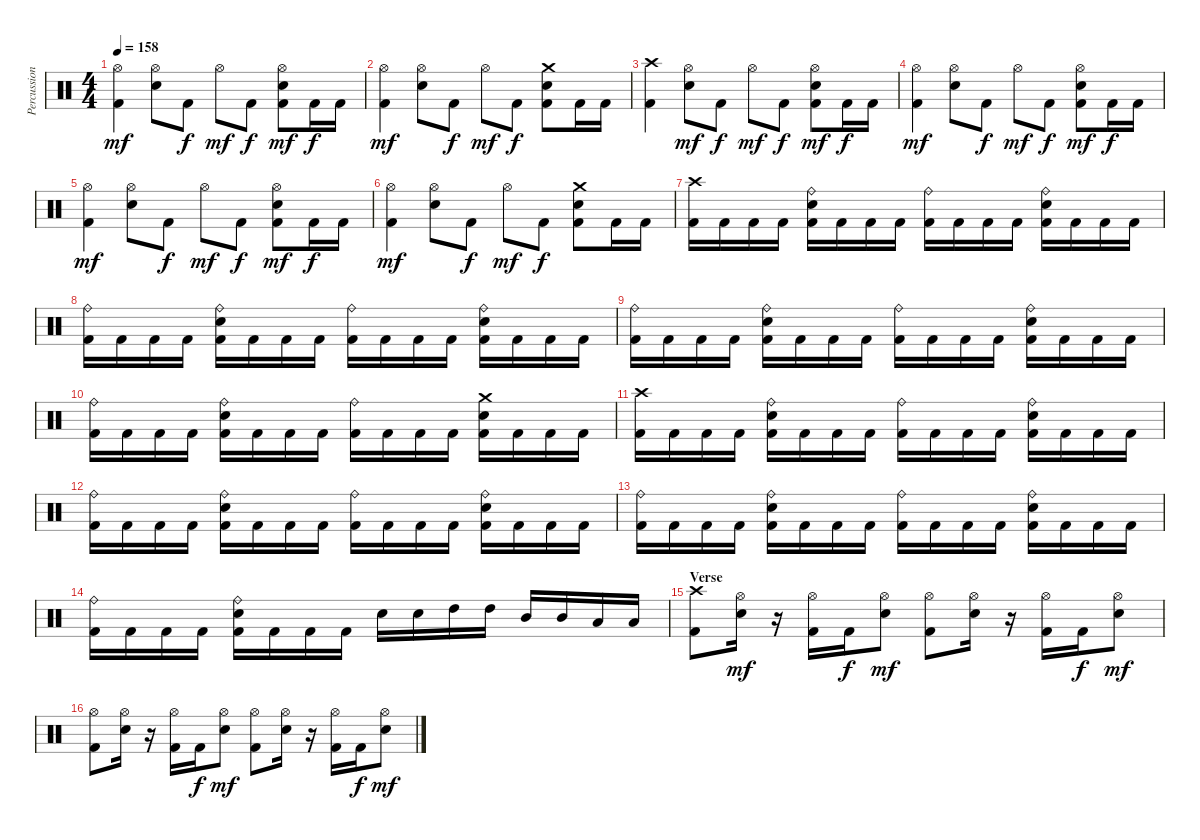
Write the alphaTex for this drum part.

\track ("Percussion" "Percussion") {instrument percussion}
\staff {score}
\articulation defaults
\ts (4 4)
\tempo 158
\clef neutral
\ks c
("Hi-Hat (open)" "Kick (hit) 2").4{dy mf} ("Hi-Hat (open)" "Electric Snare (hit)").8 "Kick (hit) 2".8{dy f} "Hi-Hat (open)".8{dy mf} "Kick (hit) 2".8{dy f} ("Hi-Hat (open)" "Electric Snare (hit)" "Kick (hit) 2").8{dy mf} "Kick (hit) 2".16{dy f} "Kick (hit) 2".16 |
("Hi-Hat (open)" "Kick (hit) 2").4{dy mf} ("Hi-Hat (open)" "Electric Snare (hit)").8 "Kick (hit) 2".8{dy f} "Hi-Hat (open)".8{dy mf} "Kick (hit) 2".8{dy f} ("Crash medium (hit)" "Electric Snare (hit)" "Kick (hit) 2").8 "Kick (hit) 2".16 "Kick (hit) 2".16 |
("Crash high (hit)" "Kick (hit) 2").4 ("Hi-Hat (open)" "Electric Snare (hit)").8{dy mf} "Kick (hit) 2".8{dy f} "Hi-Hat (open)".8{dy mf} "Kick (hit) 2".8{dy f} ("Hi-Hat (open)" "Electric Snare (hit)" "Kick (hit) 2").8{dy mf} "Kick (hit) 2".16{dy f} "Kick (hit) 2".16 |
("Hi-Hat (open)" "Kick (hit) 2").4{dy mf} ("Hi-Hat (open)" "Electric Snare (hit)").8 "Kick (hit) 2".8{dy f} "Hi-Hat (open)".8{dy mf} "Kick (hit) 2".8{dy f} ("Hi-Hat (open)" "Electric Snare (hit)" "Kick (hit) 2").8{dy mf} "Kick (hit) 2".16{dy f} "Kick (hit) 2".16 |
("Hi-Hat (open)" "Kick (hit) 2").4{dy mf} ("Hi-Hat (open)" "Electric Snare (hit)").8 "Kick (hit) 2".8{dy f} "Hi-Hat (open)".8{dy mf} "Kick (hit) 2".8{dy f} ("Hi-Hat (open)" "Electric Snare (hit)" "Kick (hit) 2").8{dy mf} "Kick (hit) 2".16{dy f} "Kick (hit) 2".16 |
("Hi-Hat (open)" "Kick (hit) 2").4{dy mf} ("Hi-Hat (open)" "Electric Snare (hit)").8 "Kick (hit) 2".8{dy f} "Hi-Hat (open)".8{dy mf} "Kick (hit) 2".8{dy f} ("Crash medium (hit)" "Electric Snare (hit)" "Kick (hit) 2").8 "Kick (hit) 2".16 "Kick (hit) 2".16 |
("Crash high (hit)" "Kick (hit) 2").16 "Kick (hit) 2".16 "Kick (hit) 2".16 "Kick (hit) 2".16 ("Ride (bell)" "Electric Snare (hit)" "Kick (hit) 2").16 "Kick (hit) 2".16 "Kick (hit) 2".16 "Kick (hit) 2".16 ("Ride (bell)" "Kick (hit) 2").16 "Kick (hit) 2".16 "Kick (hit) 2".16 "Kick (hit) 2".16 ("Ride (bell)" "Electric Snare (hit)" "Kick (hit) 2").16 "Kick (hit) 2".16 "Kick (hit) 2".16 "Kick (hit) 2".16 |
("Ride (bell)" "Kick (hit) 2").16 "Kick (hit) 2".16 "Kick (hit) 2".16 "Kick (hit) 2".16 ("Ride (bell)" "Electric Snare (hit)" "Kick (hit) 2").16 "Kick (hit) 2".16 "Kick (hit) 2".16 "Kick (hit) 2".16 ("Ride (bell)" "Kick (hit) 2").16 "Kick (hit) 2".16 "Kick (hit) 2".16 "Kick (hit) 2".16 ("Ride (bell)" "Electric Snare (hit)" "Kick (hit) 2").16 "Kick (hit) 2".16 "Kick (hit) 2".16 "Kick (hit) 2".16 |
("Ride (bell)" "Kick (hit) 2").16 "Kick (hit) 2".16 "Kick (hit) 2".16 "Kick (hit) 2".16 ("Ride (bell)" "Electric Snare (hit)" "Kick (hit) 2").16 "Kick (hit) 2".16 "Kick (hit) 2".16 "Kick (hit) 2".16 ("Ride (bell)" "Kick (hit) 2").16 "Kick (hit) 2".16 "Kick (hit) 2".16 "Kick (hit) 2".16 ("Ride (bell)" "Electric Snare (hit)" "Kick (hit) 2").16 "Kick (hit) 2".16 "Kick (hit) 2".16 "Kick (hit) 2".16 |
("Ride (bell)" "Kick (hit) 2").16 "Kick (hit) 2".16 "Kick (hit) 2".16 "Kick (hit) 2".16 ("Ride (bell)" "Electric Snare (hit)" "Kick (hit) 2").16 "Kick (hit) 2".16 "Kick (hit) 2".16 "Kick (hit) 2".16 ("Ride (bell)" "Kick (hit) 2").16 "Kick (hit) 2".16 "Kick (hit) 2".16 "Kick (hit) 2".16 ("Crash medium (hit)" "Electric Snare (hit)" "Kick (hit) 2").16 "Kick (hit) 2".16 "Kick (hit) 2".16 "Kick (hit) 2".16 |
("Crash high (hit)" "Kick (hit) 2").16 "Kick (hit) 2".16 "Kick (hit) 2".16 "Kick (hit) 2".16 ("Ride (bell)" "Electric Snare (hit)" "Kick (hit) 2").16 "Kick (hit) 2".16 "Kick (hit) 2".16 "Kick (hit) 2".16 ("Ride (bell)" "Kick (hit) 2").16 "Kick (hit) 2".16 "Kick (hit) 2".16 "Kick (hit) 2".16 ("Ride (bell)" "Electric Snare (hit)" "Kick (hit) 2").16 "Kick (hit) 2".16 "Kick (hit) 2".16 "Kick (hit) 2".16 |
("Ride (bell)" "Kick (hit) 2").16 "Kick (hit) 2".16 "Kick (hit) 2".16 "Kick (hit) 2".16 ("Ride (bell)" "Electric Snare (hit)" "Kick (hit) 2").16 "Kick (hit) 2".16 "Kick (hit) 2".16 "Kick (hit) 2".16 ("Ride (bell)" "Kick (hit) 2").16 "Kick (hit) 2".16 "Kick (hit) 2".16 "Kick (hit) 2".16 ("Ride (bell)" "Electric Snare (hit)" "Kick (hit) 2").16 "Kick (hit) 2".16 "Kick (hit) 2".16 "Kick (hit) 2".16 |
("Ride (bell)" "Kick (hit) 2").16 "Kick (hit) 2".16 "Kick (hit) 2".16 "Kick (hit) 2".16 ("Ride (bell)" "Electric Snare (hit)" "Kick (hit) 2").16 "Kick (hit) 2".16 "Kick (hit) 2".16 "Kick (hit) 2".16 ("Ride (bell)" "Kick (hit) 2").16 "Kick (hit) 2".16 "Kick (hit) 2".16 "Kick (hit) 2".16 ("Ride (bell)" "Electric Snare (hit)" "Kick (hit) 2").16 "Kick (hit) 2".16 "Kick (hit) 2".16 "Kick (hit) 2".16 |
("Ride (bell)" "Kick (hit) 2").16 "Kick (hit) 2".16 "Kick (hit) 2".16 "Kick (hit) 2".16 ("Ride (bell)" "Electric Snare (hit)" "Kick (hit) 2").16 "Kick (hit) 2".16 "Kick (hit) 2".16 "Kick (hit) 2".16 "Electric Snare (hit)".16 "Electric Snare (hit)".16 "High Tom (hit)".16 "High Tom (hit)".16 "Mid Tom (hit)".16 "Mid Tom (hit)".16 "Low Tom (hit)".16 "Low Tom (hit)".16 |
\section ("" "Verse")
("Crash high (hit)" "Kick (hit) 2").8 ("Hi-Hat (open)" "Electric Snare (hit)").16{dy mf} r.16 ("Hi-Hat (open)" "Kick (hit) 2").16 "Kick (hit) 2".16{dy f} ("Hi-Hat (open)" "Electric Snare (hit)").8{dy mf} ("Hi-Hat (open)" "Kick (hit) 2").8 ("Hi-Hat (open)" "Electric Snare (hit)").16 r.16 ("Hi-Hat (open)" "Kick (hit) 2").16 "Kick (hit) 2".16{dy f} ("Hi-Hat (open)" "Electric Snare (hit)").8{dy mf} |
("Hi-Hat (open)" "Kick (hit) 2").8 ("Hi-Hat (open)" "Electric Snare (hit)").16 r.16 ("Hi-Hat (open)" "Kick (hit) 2").16 "Kick (hit) 2".16{dy f} ("Hi-Hat (open)" "Electric Snare (hit)").8{dy mf} ("Hi-Hat (open)" "Kick (hit) 2").8 ("Hi-Hat (open)" "Electric Snare (hit)").16 r.16 ("Hi-Hat (open)" "Kick (hit) 2").16 "Kick (hit) 2".16{dy f} ("Hi-Hat (open)" "Electric Snare (hit)").8{dy mf}
